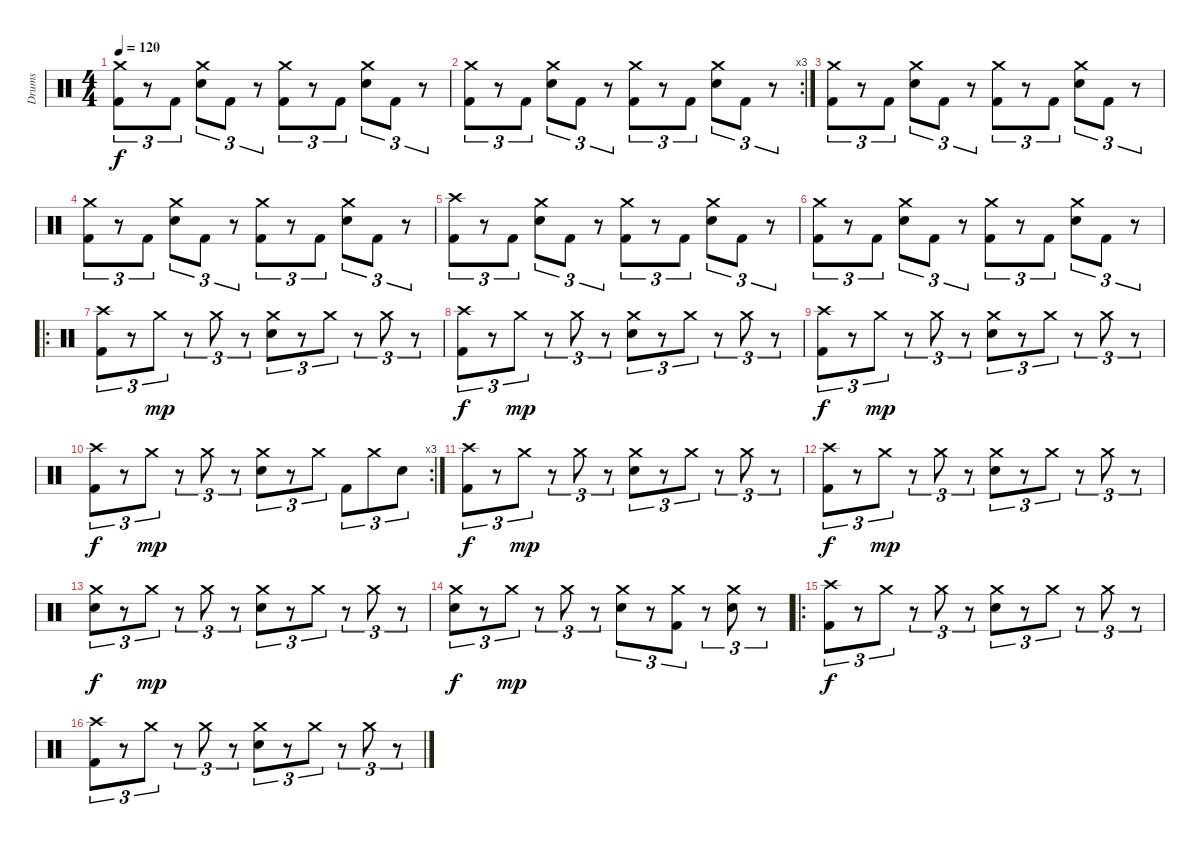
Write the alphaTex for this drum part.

\track ("Drums" "Drums") {instrument percussion}
\staff {score}
\articulation defaults
\ts (4 4)
\tempo 120
\clef neutral
\ks c
("Crash medium (hit)" "Kick (hit) 2").8{tu (3 2) dy f} r.8{tu (3 2)} "Kick (hit) 2".8{tu (3 2)} ("Crash medium (hit)" "Electric Snare (hit)").8{tu (3 2)} "Kick (hit) 2".8{tu (3 2)} r.8{tu (3 2)} ("Crash medium (hit)" "Kick (hit) 2").8{tu (3 2)} r.8{tu (3 2)} "Kick (hit) 2".8{tu (3 2)} ("Crash medium (hit)" "Electric Snare (hit)").8{tu (3 2)} "Kick (hit) 2".8{tu (3 2)} r.8{tu (3 2)} |
\rc 3
("Crash medium (hit)" "Kick (hit) 2").8{tu (3 2)} r.8{tu (3 2)} "Kick (hit) 2".8{tu (3 2)} ("Crash medium (hit)" "Electric Snare (hit)").8{tu (3 2)} "Kick (hit) 2".8{tu (3 2)} r.8{tu (3 2)} ("Crash medium (hit)" "Kick (hit) 2").8{tu (3 2)} r.8{tu (3 2)} "Kick (hit) 2".8{tu (3 2)} ("Crash medium (hit)" "Electric Snare (hit)").8{tu (3 2)} "Kick (hit) 2".8{tu (3 2)} r.8{tu (3 2)} |
("Crash medium (hit)" "Kick (hit) 2").8{tu (3 2)} r.8{tu (3 2)} "Kick (hit) 2".8{tu (3 2)} ("Crash medium (hit)" "Electric Snare (hit)").8{tu (3 2)} "Kick (hit) 2".8{tu (3 2)} r.8{tu (3 2)} ("Crash medium (hit)" "Kick (hit) 2").8{tu (3 2)} r.8{tu (3 2)} "Kick (hit) 2".8{tu (3 2)} ("Crash medium (hit)" "Electric Snare (hit)").8{tu (3 2)} "Kick (hit) 2".8{tu (3 2)} r.8{tu (3 2)} |
("Crash medium (hit)" "Kick (hit) 2").8{tu (3 2)} r.8{tu (3 2)} "Kick (hit) 2".8{tu (3 2)} ("Crash medium (hit)" "Electric Snare (hit)").8{tu (3 2)} "Kick (hit) 2".8{tu (3 2)} r.8{tu (3 2)} ("Crash medium (hit)" "Kick (hit) 2").8{tu (3 2)} r.8{tu (3 2)} "Kick (hit) 2".8{tu (3 2)} ("Crash medium (hit)" "Electric Snare (hit)").8{tu (3 2)} "Kick (hit) 2".8{tu (3 2)} r.8{tu (3 2)} |
("Crash high (hit)" "Kick (hit) 2").8{tu (3 2)} r.8{tu (3 2)} "Kick (hit) 2".8{tu (3 2)} ("Crash medium (hit)" "Electric Snare (hit)").8{tu (3 2)} "Kick (hit) 2".8{tu (3 2)} r.8{tu (3 2)} ("Crash medium (hit)" "Kick (hit) 2").8{tu (3 2)} r.8{tu (3 2)} "Kick (hit) 2".8{tu (3 2)} ("Crash medium (hit)" "Electric Snare (hit)").8{tu (3 2)} "Kick (hit) 2".8{tu (3 2)} r.8{tu (3 2)} |
("Crash medium (hit)" "Kick (hit) 2").8{tu (3 2)} r.8{tu (3 2)} "Kick (hit) 2".8{tu (3 2)} ("Crash medium (hit)" "Electric Snare (hit)").8{tu (3 2)} "Kick (hit) 2".8{tu (3 2)} r.8{tu (3 2)} ("Crash medium (hit)" "Kick (hit) 2").8{tu (3 2)} r.8{tu (3 2)} "Kick (hit) 2".8{tu (3 2)} ("Crash medium (hit)" "Electric Snare (hit)").8{tu (3 2)} "Kick (hit) 2".8{tu (3 2)} r.8{tu (3 2)} |
\ro
("Kick (hit) 2" "Crash high (hit)").8{tu (3 2)} r.8{tu (3 2)} "Crash medium (hit)".8{tu (3 2) dy mp} r.8{tu (3 2)} "Crash medium (hit)".8{tu (3 2)} r.8{tu (3 2)} ("Electric Snare (hit)" "Crash medium (hit)").8{tu (3 2)} r.8{tu (3 2)} "Crash medium (hit)".8{tu (3 2)} r.8{tu (3 2)} "Crash medium (hit)".8{tu (3 2)} r.8{tu (3 2)} |
("Kick (hit) 2" "Crash high (hit)").8{tu (3 2) dy f} r.8{tu (3 2)} "Crash medium (hit)".8{tu (3 2) dy mp} r.8{tu (3 2)} "Crash medium (hit)".8{tu (3 2)} r.8{tu (3 2)} ("Electric Snare (hit)" "Crash medium (hit)").8{tu (3 2)} r.8{tu (3 2)} "Crash medium (hit)".8{tu (3 2)} r.8{tu (3 2)} "Crash medium (hit)".8{tu (3 2)} r.8{tu (3 2)} |
("Kick (hit) 2" "Crash high (hit)").8{tu (3 2) dy f} r.8{tu (3 2)} "Crash medium (hit)".8{tu (3 2) dy mp} r.8{tu (3 2)} "Crash medium (hit)".8{tu (3 2)} r.8{tu (3 2)} ("Electric Snare (hit)" "Crash medium (hit)").8{tu (3 2)} r.8{tu (3 2)} "Crash medium (hit)".8{tu (3 2)} r.8{tu (3 2)} "Crash medium (hit)".8{tu (3 2)} r.8{tu (3 2)} |
\rc 3
("Kick (hit) 2" "Crash high (hit)").8{tu (3 2) dy f} r.8{tu (3 2)} "Crash medium (hit)".8{tu (3 2) dy mp} r.8{tu (3 2)} "Crash medium (hit)".8{tu (3 2)} r.8{tu (3 2)} ("Electric Snare (hit)" "Crash medium (hit)").8{tu (3 2)} r.8{tu (3 2)} "Crash medium (hit)".8{tu (3 2)} "Kick (hit) 2".8{tu (3 2)} "Crash medium (hit)".8{tu (3 2)} "Electric Snare (hit)".8{tu (3 2)} |
("Kick (hit) 2" "Crash high (hit)").8{tu (3 2) dy f} r.8{tu (3 2)} "Crash medium (hit)".8{tu (3 2) dy mp} r.8{tu (3 2)} "Crash medium (hit)".8{tu (3 2)} r.8{tu (3 2)} ("Electric Snare (hit)" "Crash medium (hit)").8{tu (3 2)} r.8{tu (3 2)} "Crash medium (hit)".8{tu (3 2)} r.8{tu (3 2)} "Crash medium (hit)".8{tu (3 2)} r.8{tu (3 2)} |
("Kick (hit) 2" "Crash high (hit)").8{tu (3 2) dy f} r.8{tu (3 2)} "Crash medium (hit)".8{tu (3 2) dy mp} r.8{tu (3 2)} "Crash medium (hit)".8{tu (3 2)} r.8{tu (3 2)} ("Electric Snare (hit)" "Crash medium (hit)").8{tu (3 2)} r.8{tu (3 2)} "Crash medium (hit)".8{tu (3 2)} r.8{tu (3 2)} "Crash medium (hit)".8{tu (3 2)} r.8{tu (3 2)} |
("Electric Snare (hit)" "Crash medium (hit)").8{tu (3 2) dy f} r.8{tu (3 2)} "Crash medium (hit)".8{tu (3 2) dy mp} r.8{tu (3 2)} "Crash medium (hit)".8{tu (3 2)} r.8{tu (3 2)} ("Electric Snare (hit)" "Crash medium (hit)").8{tu (3 2)} r.8{tu (3 2)} "Crash medium (hit)".8{tu (3 2)} r.8{tu (3 2)} "Crash medium (hit)".8{tu (3 2)} r.8{tu (3 2)} |
("Electric Snare (hit)" "Crash medium (hit)").8{tu (3 2) dy f} r.8{tu (3 2)} "Crash medium (hit)".8{tu (3 2) dy mp} r.8{tu (3 2)} "Crash medium (hit)".8{tu (3 2)} r.8{tu (3 2)} ("Electric Snare (hit)" "Crash medium (hit)").8{tu (3 2)} r.8{tu (3 2)} ("Kick (hit) 2" "Crash medium (hit)").8{tu (3 2)} r.8{tu (3 2)} ("Electric Snare (hit)" "Crash medium (hit)").8{tu (3 2)} r.8{tu (3 2)} |
\ro
("Kick (hit) 2" "Crash high (hit)").8{tu (3 2) dy f} r.8{tu (3 2)} "Crash medium (hit)".8{tu (3 2)} r.8{tu (3 2)} "Crash medium (hit)".8{tu (3 2)} r.8{tu (3 2)} ("Electric Snare (hit)" "Crash medium (hit)").8{tu (3 2)} r.8{tu (3 2)} "Crash medium (hit)".8{tu (3 2)} r.8{tu (3 2)} "Crash medium (hit)".8{tu (3 2)} r.8{tu (3 2)} |
("Kick (hit) 2" "Crash high (hit)").8{tu (3 2)} r.8{tu (3 2)} "Crash medium (hit)".8{tu (3 2)} r.8{tu (3 2)} "Crash medium (hit)".8{tu (3 2)} r.8{tu (3 2)} ("Electric Snare (hit)" "Crash medium (hit)").8{tu (3 2)} r.8{tu (3 2)} "Crash medium (hit)".8{tu (3 2)} r.8{tu (3 2)} "Crash medium (hit)".8{tu (3 2)} r.8{tu (3 2)}
